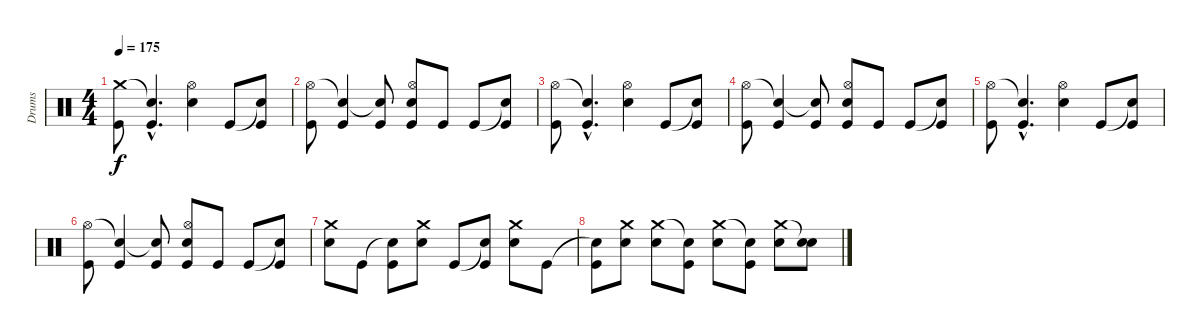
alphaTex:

\track ("Drums" "Drums") {instrument percussion}
\staff {score}
\articulation defaults
\ts (4 4)
\tempo 175
\clef neutral
\ks c
("Crash medium (hit)" "Kick (hit)").8{dy f} ("Snare (hit)"{hac t} "Kick (hit)"{hac}).4{d} ("Hi-Hat (open)" "Electric Snare (hit)").4 "Kick (hit)".8 ("Snare (hit)"{t} "Kick (hit)").8 |
("Hi-Hat (open)" "Kick (hit)").8 ("Snare (hit)"{t} "Kick (hit)").4 ("Snare (hit)"{t} "Kick (hit)").8 ("Hi-Hat (open)" "Electric Snare (hit)" "Kick (hit)").8 "Kick (hit)".8 "Kick (hit)".8 ("Snare (hit)"{t} "Kick (hit)").8 |
("Hi-Hat (open)" "Kick (hit)").8 ("Snare (hit)"{hac t} "Kick (hit)"{hac}).4{d} ("Hi-Hat (open)" "Electric Snare (hit)").4 "Kick (hit)".8 ("Snare (hit)"{t} "Kick (hit)").8 |
("Hi-Hat (open)" "Kick (hit)").8 ("Snare (hit)"{t} "Kick (hit)").4 ("Snare (hit)"{t} "Kick (hit)").8 ("Hi-Hat (open)" "Electric Snare (hit)" "Kick (hit)").8 "Kick (hit)".8 "Kick (hit)".8 ("Snare (hit)"{t} "Kick (hit)").8 |
("Hi-Hat (open)" "Kick (hit)").8 ("Snare (hit)"{hac t} "Kick (hit)"{hac}).4{d} ("Hi-Hat (open)" "Electric Snare (hit)").4 "Kick (hit)".8 ("Snare (hit)"{t} "Kick (hit)").8 |
("Hi-Hat (open)" "Kick (hit)").8 ("Snare (hit)"{t} "Kick (hit)").4 ("Snare (hit)"{t} "Kick (hit)").8 ("Hi-Hat (open)" "Electric Snare (hit)" "Kick (hit)").8 "Kick (hit)".8 "Kick (hit)".8 ("Snare (hit)"{t} "Kick (hit)").8 |
("Crash medium (hit)" "Electric Snare (hit)").8 "Kick (hit)".8 ("Snare (hit)"{t} "Kick (hit)").8 ("Crash medium (hit)" "Electric Snare (hit)").8 "Kick (hit)".8 ("Snare (hit)"{t} "Kick (hit)").8 ("Crash medium (hit)" "Electric Snare (hit)").8 "Kick (hit)".8 |
("Snare (hit)"{t} "Kick (hit)").8 ("Crash medium (hit)" "Electric Snare (hit)").8 ("Crash medium (hit)" "Electric Snare (hit)").8 ("Snare (hit)"{t} "Kick (hit)").8 ("Crash medium (hit)" "Electric Snare (hit)").8 ("Snare (hit)"{t} "Kick (hit)").8 ("Crash medium (hit)" "Electric Snare (hit)").8 ("Snare (hit)"{t} "Electric Snare (hit)").8
